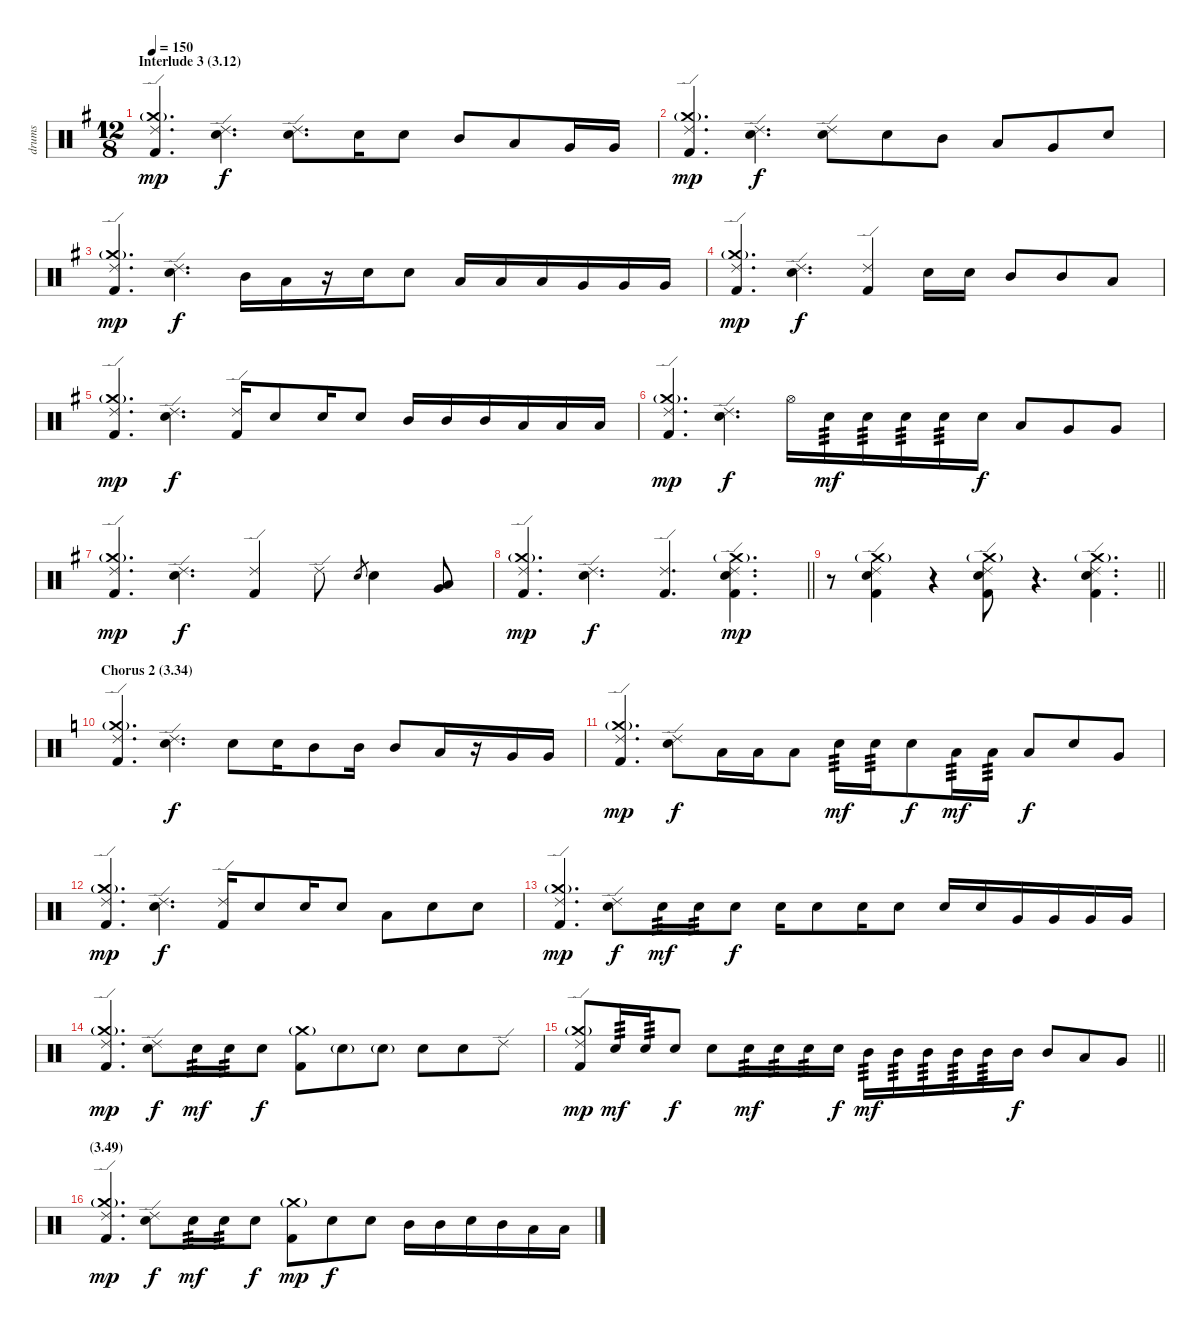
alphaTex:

\track ("drums" "drums") {instrument percussion}
\staff {score}
\articulation defaults
\ts (12 8)
\section ("" "Interlude 3 (3.12)")
\tempo 150
\clef neutral
\ks g
("Ride (edge) 2" "Crash medium (hit)"{g} "Kick (hit) 2").4{d dy mp} ("Ride (edge) 2" "Electric Snare (hit)").4{d dy f} ("Ride (edge) 2" "Electric Snare (hit)").8{d} "Electric Snare (hit)".16 "Electric Snare (hit)".8 "Mid Tom (hit)".8 "Low Tom (hit)".8 "Very Low Tom (hit)".16 "Very Low Tom (hit)".16 |
("Ride (edge) 2" "Crash medium (hit)"{g} "Kick (hit) 2").4{d dy mp} ("Ride (edge) 2" "Electric Snare (hit)").4{d dy f} ("Ride (edge) 2" "Electric Snare (hit)").8 "Electric Snare (hit)".8 "Mid Tom (hit)".8 "Low Tom (hit)".8 "Very Low Tom (hit)".8 "Electric Snare (hit)".8 |
("Ride (edge) 2" "Crash medium (hit)"{g} "Kick (hit) 2").4{d dy mp} ("Ride (edge) 2" "Electric Snare (hit)").4{d dy f} "Mid Tom (hit)".16 "Low Tom (hit)".16 r.16 "Electric Snare (hit)".16 "Electric Snare (hit)".8 "Low Tom (hit)".16 "Low Tom (hit)".16 "Low Tom (hit)".16 "Very Low Tom (hit)".16 "Very Low Tom (hit)".16 "Very Low Tom (hit)".16 |
("Ride (edge) 2" "Crash medium (hit)"{g} "Kick (hit) 2").4{d dy mp} ("Ride (edge) 2" "Electric Snare (hit)").4{d dy f} ("Ride (edge) 2" "Kick (hit) 2").4 "Electric Snare (hit)".16 "Electric Snare (hit)".16 "Mid Tom (hit)".8 "Mid Tom (hit)".8 "Low Tom (hit)".8 |
("Ride (edge) 2" "Crash medium (hit)"{g} "Kick (hit) 2").4{d dy mp} ("Ride (edge) 2" "Electric Snare (hit)").4{d dy f} ("Ride (edge) 2" "Kick (hit) 2").16 "Electric Snare (hit)".8 "Electric Snare (hit)".16 "Electric Snare (hit)".8 "Mid Tom (hit)".16 "Mid Tom (hit)".16 "Mid Tom (hit)".16 "Low Tom (hit)".16 "Low Tom (hit)".16 "Low Tom (hit)".16 |
("Ride (edge) 2" "Crash medium (hit)"{g} "Kick (hit) 2").4{d dy mp} ("Ride (edge) 2" "Electric Snare (hit)").4{d dy f} "Hi-Hat (open)".16 "Electric Snare (hit)".16{tp 3 dy mf} "Electric Snare (hit)".16{tp 3} "Electric Snare (hit)".16{tp 3} "Electric Snare (hit)".16{tp 3} "Electric Snare (hit)".16{dy f} "Low Tom (hit)".8 "Very Low Tom (hit)".8 "Very Low Tom (hit)".8 |
("Ride (edge) 2" "Crash medium (hit)"{g} "Kick (hit) 2").4{d dy mp} ("Ride (edge) 2" "Electric Snare (hit)").4{d dy f} ("Ride (edge) 2" "Kick (hit) 2").4 "Ride (edge) 2".8 "Electric Snare (hit)".8{gr} "Electric Snare (hit)".4 ("Low Tom (hit)" "Very Low Tom (hit)").8 |
\barLineRight lightlight
("Ride (edge) 2" "Crash medium (hit)"{g} "Kick (hit) 2").4{d dy mp} ("Ride (edge) 2" "Electric Snare (hit)").4{d dy f} ("Ride (edge) 2" "Kick (hit) 2").4{d} ("Ride (edge) 2" "Crash medium (hit)"{g} "Electric Snare (hit)" "Kick (hit) 2").4{d dy mp} |
\barLineRight lightlight
r.8 ("Ride (edge) 2" "Crash medium (hit)"{g} "Electric Snare (hit)" "Kick (hit) 2").4 r.4 ("Ride (edge) 2" "Crash medium (hit)"{g} "Electric Snare (hit)" "Kick (hit) 2").8 r.4{d} ("Ride (edge) 2" "Crash medium (hit)"{g} "Electric Snare (hit)" "Kick (hit) 2").4{d} |
\section ("" "Chorus 2 (3.34)")
\ks c
("Ride (edge) 2" "Crash medium (hit)"{g} "Kick (hit) 2").4{d} ("Ride (edge) 2" "Electric Snare (hit)").4{d dy f} "Electric Snare (hit)".8 "Electric Snare (hit)".16 "Mid Tom (hit)".8 "Mid Tom (hit)".16 "Mid Tom (hit)".8 "Low Tom (hit)".16 r.16 "Very Low Tom (hit)".16 "Very Low Tom (hit)".16 |
("Ride (edge) 2" "Crash medium (hit)"{g} "Kick (hit) 2").4{d dy mp} ("Ride (edge) 2" "Electric Snare (hit)").8{dy f} "Low Tom (hit)".16 "Low Tom (hit)".16 "Low Tom (hit)".8 "Electric Snare (hit)".16{tp 3 dy mf} "Electric Snare (hit)".16{tp 3} "Electric Snare (hit)".8{dy f} "Low Tom (hit)".16{tp 3 dy mf} "Low Tom (hit)".16{tp 3} "Low Tom (hit)".8{dy f} "Electric Snare (hit)".8 "Very Low Tom (hit)".8 |
("Ride (edge) 2" "Crash medium (hit)"{g} "Kick (hit) 2").4{d dy mp} ("Ride (edge) 2" "Electric Snare (hit)").4{d dy f} ("Ride (edge) 2" "Kick (hit) 2").16 "Electric Snare (hit)".8 "Electric Snare (hit)".16 "Electric Snare (hit)".8 "Low Tom (hit)".8 "Electric Snare (hit)".8 "Electric Snare (hit)".8 |
("Ride (edge) 2" "Crash medium (hit)"{g} "Kick (hit) 2").4{d dy mp} ("Ride (edge) 2" "Electric Snare (hit)").8{dy f} "Electric Snare (hit)".16{tp 3 dy mf} "Electric Snare (hit)".16{tp 3} "Electric Snare (hit)".8{dy f} "Electric Snare (hit)".16 "Electric Snare (hit)".8 "Electric Snare (hit)".16 "Electric Snare (hit)".8 "Electric Snare (hit)".16 "Electric Snare (hit)".16 "Very Low Tom (hit)".16 "Very Low Tom (hit)".16 "Very Low Tom (hit)".16 "Very Low Tom (hit)".16 |
("Ride (edge) 2" "Crash medium (hit)"{g} "Kick (hit) 2").4{d dy mp} ("Ride (edge) 2" "Electric Snare (hit)").8{dy f} "Electric Snare (hit)".16{tp 3 dy mf} "Electric Snare (hit)".16{tp 3} "Electric Snare (hit)".8{dy f} ("Crash medium (hit)"{g} "Kick (hit) 2").8 "Electric Snare (hit)"{g}.8 "Electric Snare (hit)"{g}.8 "Electric Snare (hit)".8 "Electric Snare (hit)".8 "Ride (edge) 2".8 |
\barLineRight lightlight
("Ride (edge) 2" "Crash medium (hit)"{g} "Kick (hit) 2").8{dy mp} "Electric Snare (hit)".16{tp 3 dy mf} "Electric Snare (hit)".16{tp 3} "Electric Snare (hit)".8{dy f} "Electric Snare (hit)".8 "Electric Snare (hit)".16{tp 3 dy mf} "Electric Snare (hit)".16{tp 3} "Electric Snare (hit)".16{tp 3} "Electric Snare (hit)".16{dy f} "Mid Tom (hit)".16{tp 3 dy mf} "Mid Tom (hit)".16{tp 3} "Mid Tom (hit)".16{tp 3} "Mid Tom (hit)".16{tp 3} "Mid Tom (hit)".16{tp 3} "Mid Tom (hit)".16{dy f} "Mid Tom (hit)".8 "Low Tom (hit)".8 "Very Low Tom (hit)".8 |
\section ("" "(3.49)")
("Ride (edge) 2" "Crash medium (hit)"{g} "Kick (hit) 2").4{d dy mp} ("Ride (edge) 2" "Electric Snare (hit)").8{dy f} "Electric Snare (hit)".16{tp 3 dy mf} "Electric Snare (hit)".16{tp 3} "Electric Snare (hit)".8{dy f} ("Crash medium (hit)"{g} "Kick (hit) 2").8{dy mp} "Electric Snare (hit)".8{dy f} "Electric Snare (hit)".8 "Mid Tom (hit)".16 "Mid Tom (hit)".16 "Electric Snare (hit)".16 "Mid Tom (hit)".16 "Low Tom (hit)".16 "Low Tom (hit)".16
